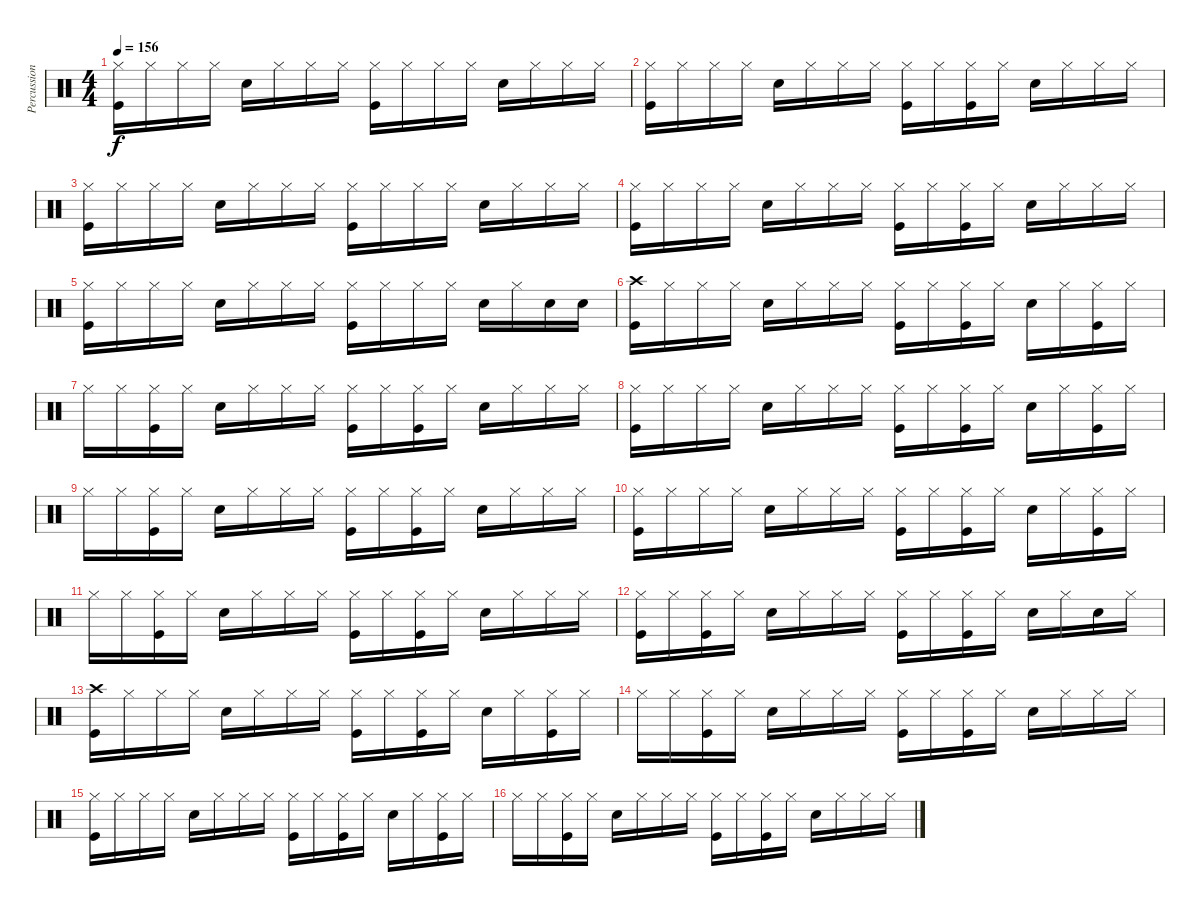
\track ("Percussion" "Percussion") {instrument percussion}
\staff {score}
\articulation defaults
\ts (4 4)
\tempo 156
\clef neutral
\ks c
("Hi-Hat (closed)" "Kick (hit)").16{dy f} "Hi-Hat (closed)".16 "Hi-Hat (closed)".16 "Hi-Hat (closed)".16 "Snare (hit) 2".16 "Hi-Hat (closed)".16 "Hi-Hat (closed)".16 "Hi-Hat (closed)".16 ("Hi-Hat (closed)" "Kick (hit)").16 "Hi-Hat (closed)".16 "Hi-Hat (closed)".16 "Hi-Hat (closed)".16 "Snare (hit) 2".16 "Hi-Hat (closed)".16 "Hi-Hat (closed)".16 "Hi-Hat (closed)".16 |
("Hi-Hat (closed)" "Kick (hit)").16 "Hi-Hat (closed)".16 "Hi-Hat (closed)".16 "Hi-Hat (closed)".16 "Snare (hit) 2".16 "Hi-Hat (closed)".16 "Hi-Hat (closed)".16 "Hi-Hat (closed)".16 ("Hi-Hat (closed)" "Kick (hit)").16 "Hi-Hat (closed)".16 ("Hi-Hat (closed)" "Kick (hit)").16 "Hi-Hat (closed)".16 "Snare (hit) 2".16 "Hi-Hat (closed)".16 "Hi-Hat (closed)".16 "Hi-Hat (closed)".16 |
("Hi-Hat (closed)" "Kick (hit)").16 "Hi-Hat (closed)".16 "Hi-Hat (closed)".16 "Hi-Hat (closed)".16 "Snare (hit) 2".16 "Hi-Hat (closed)".16 "Hi-Hat (closed)".16 "Hi-Hat (closed)".16 ("Hi-Hat (closed)" "Kick (hit)").16 "Hi-Hat (closed)".16 "Hi-Hat (closed)".16 "Hi-Hat (closed)".16 "Snare (hit) 2".16 "Hi-Hat (closed)".16 "Hi-Hat (closed)".16 "Hi-Hat (closed)".16 |
("Hi-Hat (closed)" "Kick (hit)").16 "Hi-Hat (closed)".16 "Hi-Hat (closed)".16 "Hi-Hat (closed)".16 "Snare (hit) 2".16 "Hi-Hat (closed)".16 "Hi-Hat (closed)".16 "Hi-Hat (closed)".16 ("Hi-Hat (closed)" "Kick (hit)").16 "Hi-Hat (closed)".16 ("Hi-Hat (closed)" "Kick (hit)").16 "Hi-Hat (closed)".16 "Snare (hit) 2".16 "Hi-Hat (closed)".16 "Hi-Hat (closed)".16 "Hi-Hat (closed)".16 |
("Hi-Hat (closed)" "Kick (hit)").16 "Hi-Hat (closed)".16 "Hi-Hat (closed)".16 "Hi-Hat (closed)".16 "Snare (hit) 2".16 "Hi-Hat (closed)".16 "Hi-Hat (closed)".16 "Hi-Hat (closed)".16 ("Hi-Hat (closed)" "Kick (hit)").16 "Hi-Hat (closed)".16 "Hi-Hat (closed)".16 "Hi-Hat (closed)".16 "Snare (hit) 2".16 "Hi-Hat (closed)".16 "Snare (hit) 2".16 "Snare (hit) 2".16 |
("Crash high (hit)" "Kick (hit)").16 "Hi-Hat (closed)".16 "Hi-Hat (closed)".16 "Hi-Hat (closed)".16 "Snare (hit) 2".16 "Hi-Hat (closed)".16 "Hi-Hat (closed)".16 "Hi-Hat (closed)".16 ("Hi-Hat (closed)" "Kick (hit)").16 "Hi-Hat (closed)".16 ("Hi-Hat (closed)" "Kick (hit)").16 "Hi-Hat (closed)".16 "Snare (hit) 2".16 "Hi-Hat (closed)".16 ("Hi-Hat (closed)" "Kick (hit)").16 "Hi-Hat (closed)".16 |
"Hi-Hat (closed)".16 "Hi-Hat (closed)".16 ("Hi-Hat (closed)" "Kick (hit)").16 "Hi-Hat (closed)".16 "Snare (hit) 2".16 "Hi-Hat (closed)".16 "Hi-Hat (closed)".16 "Hi-Hat (closed)".16 ("Hi-Hat (closed)" "Kick (hit)").16 "Hi-Hat (closed)".16 ("Hi-Hat (closed)" "Kick (hit)").16 "Hi-Hat (closed)".16 "Snare (hit) 2".16 "Hi-Hat (closed)".16 "Hi-Hat (closed)".16 "Hi-Hat (closed)".16 |
("Hi-Hat (closed)" "Kick (hit)").16 "Hi-Hat (closed)".16 "Hi-Hat (closed)".16 "Hi-Hat (closed)".16 "Snare (hit) 2".16 "Hi-Hat (closed)".16 "Hi-Hat (closed)".16 "Hi-Hat (closed)".16 ("Hi-Hat (closed)" "Kick (hit)").16 "Hi-Hat (closed)".16 ("Hi-Hat (closed)" "Kick (hit)").16 "Hi-Hat (closed)".16 "Snare (hit) 2".16 "Hi-Hat (closed)".16 ("Hi-Hat (closed)" "Kick (hit)").16 "Hi-Hat (closed)".16 |
"Hi-Hat (closed)".16 "Hi-Hat (closed)".16 ("Hi-Hat (closed)" "Kick (hit)").16 "Hi-Hat (closed)".16 "Snare (hit) 2".16 "Hi-Hat (closed)".16 "Hi-Hat (closed)".16 "Hi-Hat (closed)".16 ("Hi-Hat (closed)" "Kick (hit)").16 "Hi-Hat (closed)".16 ("Hi-Hat (closed)" "Kick (hit)").16 "Hi-Hat (closed)".16 "Snare (hit) 2".16 "Hi-Hat (closed)".16 "Hi-Hat (closed)".16 "Hi-Hat (closed)".16 |
("Hi-Hat (closed)" "Kick (hit)").16 "Hi-Hat (closed)".16 "Hi-Hat (closed)".16 "Hi-Hat (closed)".16 "Snare (hit) 2".16 "Hi-Hat (closed)".16 "Hi-Hat (closed)".16 "Hi-Hat (closed)".16 ("Hi-Hat (closed)" "Kick (hit)").16 "Hi-Hat (closed)".16 ("Hi-Hat (closed)" "Kick (hit)").16 "Hi-Hat (closed)".16 "Snare (hit) 2".16 "Hi-Hat (closed)".16 ("Hi-Hat (closed)" "Kick (hit)").16 "Hi-Hat (closed)".16 |
"Hi-Hat (closed)".16 "Hi-Hat (closed)".16 ("Hi-Hat (closed)" "Kick (hit)").16 "Hi-Hat (closed)".16 "Snare (hit) 2".16 "Hi-Hat (closed)".16 "Hi-Hat (closed)".16 "Hi-Hat (closed)".16 ("Hi-Hat (closed)" "Kick (hit)").16 "Hi-Hat (closed)".16 ("Hi-Hat (closed)" "Kick (hit)").16 "Hi-Hat (closed)".16 "Snare (hit) 2".16 "Hi-Hat (closed)".16 "Hi-Hat (closed)".16 "Hi-Hat (closed)".16 |
("Hi-Hat (closed)" "Kick (hit)").16 "Hi-Hat (closed)".16 ("Hi-Hat (closed)" "Kick (hit)").16 "Hi-Hat (closed)".16 "Snare (hit) 2".16 "Hi-Hat (closed)".16 "Hi-Hat (closed)".16 "Hi-Hat (closed)".16 ("Hi-Hat (closed)" "Kick (hit)").16 "Hi-Hat (closed)".16 ("Hi-Hat (closed)" "Kick (hit)").16 "Hi-Hat (closed)".16 "Snare (hit) 2".16 "Hi-Hat (closed)".16 "Snare (hit) 2".16 "Hi-Hat (closed)".16 |
("Crash high (hit)" "Kick (hit)").16 "Hi-Hat (closed)".16 "Hi-Hat (closed)".16 "Hi-Hat (closed)".16 "Snare (hit) 2".16 "Hi-Hat (closed)".16 "Hi-Hat (closed)".16 "Hi-Hat (closed)".16 ("Hi-Hat (closed)" "Kick (hit)").16 "Hi-Hat (closed)".16 ("Hi-Hat (closed)" "Kick (hit)").16 "Hi-Hat (closed)".16 "Snare (hit) 2".16 "Hi-Hat (closed)".16 ("Hi-Hat (closed)" "Kick (hit)").16 "Hi-Hat (closed)".16 |
"Hi-Hat (closed)".16 "Hi-Hat (closed)".16 ("Hi-Hat (closed)" "Kick (hit)").16 "Hi-Hat (closed)".16 "Snare (hit) 2".16 "Hi-Hat (closed)".16 "Hi-Hat (closed)".16 "Hi-Hat (closed)".16 ("Hi-Hat (closed)" "Kick (hit)").16 "Hi-Hat (closed)".16 ("Hi-Hat (closed)" "Kick (hit)").16 "Hi-Hat (closed)".16 "Snare (hit) 2".16 "Hi-Hat (closed)".16 "Hi-Hat (closed)".16 "Hi-Hat (closed)".16 |
("Hi-Hat (closed)" "Kick (hit)").16 "Hi-Hat (closed)".16 "Hi-Hat (closed)".16 "Hi-Hat (closed)".16 "Snare (hit) 2".16 "Hi-Hat (closed)".16 "Hi-Hat (closed)".16 "Hi-Hat (closed)".16 ("Hi-Hat (closed)" "Kick (hit)").16 "Hi-Hat (closed)".16 ("Hi-Hat (closed)" "Kick (hit)").16 "Hi-Hat (closed)".16 "Snare (hit) 2".16 "Hi-Hat (closed)".16 ("Hi-Hat (closed)" "Kick (hit)").16 "Hi-Hat (closed)".16 |
"Hi-Hat (closed)".16 "Hi-Hat (closed)".16 ("Hi-Hat (closed)" "Kick (hit)").16 "Hi-Hat (closed)".16 "Snare (hit) 2".16 "Hi-Hat (closed)".16 "Hi-Hat (closed)".16 "Hi-Hat (closed)".16 ("Hi-Hat (closed)" "Kick (hit)").16 "Hi-Hat (closed)".16 ("Hi-Hat (closed)" "Kick (hit)").16 "Hi-Hat (closed)".16 "Snare (hit) 2".16 "Hi-Hat (closed)".16 "Hi-Hat (closed)".16 "Hi-Hat (closed)".16
